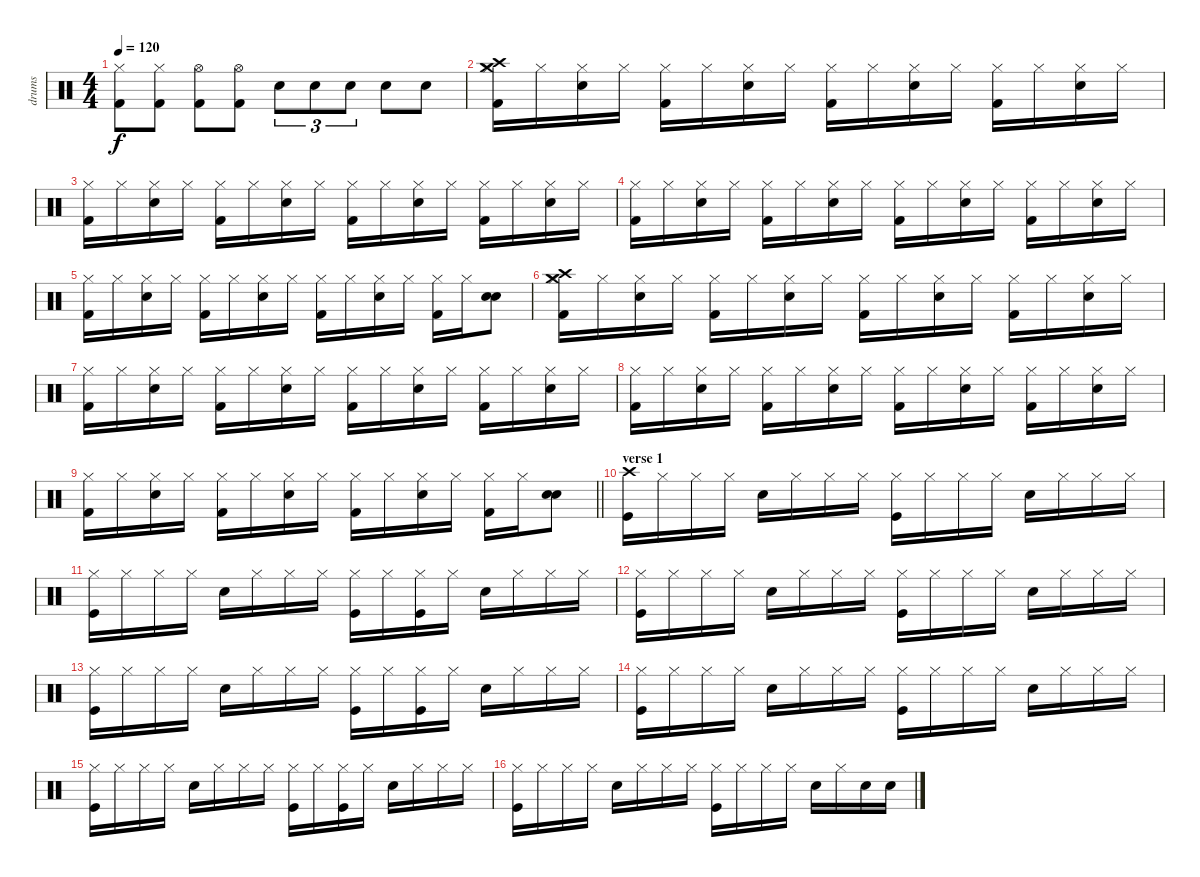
\track ("drums" "drums") {instrument percussion}
\staff {score}
\articulation defaults
\ts (4 4)
\tempo 120
\clef neutral
\ks c
("Kick (hit) 2" "Hi-Hat (closed)").8{dy f} ("Kick (hit) 2" "Hi-Hat (closed)").8 ("Kick (hit) 2" "Hi-Hat (open)").8 ("Kick (hit) 2" "Hi-Hat (open)").8 "Snare (hit) 2".8{tu (3 2)} "Snare (hit) 2".8{tu (3 2)} "Snare (hit) 2".8{tu (3 2)} "Snare (hit) 2".8 "Snare (hit) 2".8 |
("Crash medium (hit)" "Hi-Hat (closed)" "Crash high (hit)" "Kick (hit) 2").16 "Hi-Hat (closed)".16 ("Hi-Hat (closed)" "Electric Snare (hit)").16 "Hi-Hat (closed)".16 ("Hi-Hat (closed)" "Kick (hit) 2").16 "Hi-Hat (closed)".16 ("Hi-Hat (closed)" "Electric Snare (hit)").16 "Hi-Hat (closed)".16 ("Hi-Hat (closed)" "Kick (hit) 2").16 "Hi-Hat (closed)".16 ("Hi-Hat (closed)" "Electric Snare (hit)").16 "Hi-Hat (closed)".16 ("Hi-Hat (closed)" "Kick (hit) 2").16 "Hi-Hat (closed)".16 ("Hi-Hat (closed)" "Electric Snare (hit)").16 "Hi-Hat (closed)".16 |
("Hi-Hat (closed)" "Kick (hit) 2").16 "Hi-Hat (closed)".16 ("Hi-Hat (closed)" "Electric Snare (hit)").16 "Hi-Hat (closed)".16 ("Hi-Hat (closed)" "Kick (hit) 2").16 "Hi-Hat (closed)".16 ("Hi-Hat (closed)" "Electric Snare (hit)").16 "Hi-Hat (closed)".16 ("Hi-Hat (closed)" "Kick (hit) 2").16 "Hi-Hat (closed)".16 ("Hi-Hat (closed)" "Electric Snare (hit)").16 "Hi-Hat (closed)".16 ("Hi-Hat (closed)" "Kick (hit) 2").16 "Hi-Hat (closed)".16 ("Hi-Hat (closed)" "Electric Snare (hit)").16 "Hi-Hat (closed)".16 |
("Hi-Hat (closed)" "Kick (hit) 2").16 "Hi-Hat (closed)".16 ("Hi-Hat (closed)" "Electric Snare (hit)").16 "Hi-Hat (closed)".16 ("Hi-Hat (closed)" "Kick (hit) 2").16 "Hi-Hat (closed)".16 ("Hi-Hat (closed)" "Electric Snare (hit)").16 "Hi-Hat (closed)".16 ("Hi-Hat (closed)" "Kick (hit) 2").16 "Hi-Hat (closed)".16 ("Hi-Hat (closed)" "Electric Snare (hit)").16 "Hi-Hat (closed)".16 ("Hi-Hat (closed)" "Kick (hit) 2").16 "Hi-Hat (closed)".16 ("Hi-Hat (closed)" "Electric Snare (hit)").16 "Hi-Hat (closed)".16 |
("Hi-Hat (closed)" "Kick (hit) 2").16 "Hi-Hat (closed)".16 ("Hi-Hat (closed)" "Electric Snare (hit)").16 "Hi-Hat (closed)".16 ("Hi-Hat (closed)" "Kick (hit) 2").16 "Hi-Hat (closed)".16 ("Hi-Hat (closed)" "Electric Snare (hit)").16 "Hi-Hat (closed)".16 ("Hi-Hat (closed)" "Kick (hit) 2").16 "Hi-Hat (closed)".16 ("Hi-Hat (closed)" "Electric Snare (hit)").16 "Hi-Hat (closed)".16 ("Hi-Hat (closed)" "Kick (hit) 2").16 "Hi-Hat (closed)".16 ("Electric Snare (hit)" "Electric Snare (hit)").8 |
("Crash medium (hit)" "Hi-Hat (closed)" "Crash high (hit)" "Kick (hit) 2").16 "Hi-Hat (closed)".16 ("Hi-Hat (closed)" "Electric Snare (hit)").16 "Hi-Hat (closed)".16 ("Hi-Hat (closed)" "Kick (hit) 2").16 "Hi-Hat (closed)".16 ("Hi-Hat (closed)" "Electric Snare (hit)").16 "Hi-Hat (closed)".16 ("Hi-Hat (closed)" "Kick (hit) 2").16 "Hi-Hat (closed)".16 ("Hi-Hat (closed)" "Electric Snare (hit)").16 "Hi-Hat (closed)".16 ("Hi-Hat (closed)" "Kick (hit) 2").16 "Hi-Hat (closed)".16 ("Hi-Hat (closed)" "Electric Snare (hit)").16 "Hi-Hat (closed)".16 |
("Hi-Hat (closed)" "Kick (hit) 2").16 "Hi-Hat (closed)".16 ("Hi-Hat (closed)" "Electric Snare (hit)").16 "Hi-Hat (closed)".16 ("Hi-Hat (closed)" "Kick (hit) 2").16 "Hi-Hat (closed)".16 ("Hi-Hat (closed)" "Electric Snare (hit)").16 "Hi-Hat (closed)".16 ("Hi-Hat (closed)" "Kick (hit) 2").16 "Hi-Hat (closed)".16 ("Hi-Hat (closed)" "Electric Snare (hit)").16 "Hi-Hat (closed)".16 ("Hi-Hat (closed)" "Kick (hit) 2").16 "Hi-Hat (closed)".16 ("Hi-Hat (closed)" "Electric Snare (hit)").16 "Hi-Hat (closed)".16 |
("Hi-Hat (closed)" "Kick (hit) 2").16 "Hi-Hat (closed)".16 ("Hi-Hat (closed)" "Electric Snare (hit)").16 "Hi-Hat (closed)".16 ("Hi-Hat (closed)" "Kick (hit) 2").16 "Hi-Hat (closed)".16 ("Hi-Hat (closed)" "Electric Snare (hit)").16 "Hi-Hat (closed)".16 ("Hi-Hat (closed)" "Kick (hit) 2").16 "Hi-Hat (closed)".16 ("Hi-Hat (closed)" "Electric Snare (hit)").16 "Hi-Hat (closed)".16 ("Hi-Hat (closed)" "Kick (hit) 2").16 "Hi-Hat (closed)".16 ("Hi-Hat (closed)" "Electric Snare (hit)").16 "Hi-Hat (closed)".16 |
\barLineRight lightlight
("Hi-Hat (closed)" "Kick (hit) 2").16 "Hi-Hat (closed)".16 ("Hi-Hat (closed)" "Electric Snare (hit)").16 "Hi-Hat (closed)".16 ("Hi-Hat (closed)" "Kick (hit) 2").16 "Hi-Hat (closed)".16 ("Hi-Hat (closed)" "Electric Snare (hit)").16 "Hi-Hat (closed)".16 ("Hi-Hat (closed)" "Kick (hit) 2").16 "Hi-Hat (closed)".16 ("Hi-Hat (closed)" "Electric Snare (hit)").16 "Hi-Hat (closed)".16 ("Hi-Hat (closed)" "Kick (hit) 2").16 "Hi-Hat (closed)".16 ("Electric Snare (hit)" "Electric Snare (hit)").8 |
\section ("" "verse 1")
("Crash high (hit)" "Kick (hit)").16 "Hi-Hat (closed)".16 "Hi-Hat (closed)".16 "Hi-Hat (closed)".16 "Snare (hit) 2".16 "Hi-Hat (closed)".16 "Hi-Hat (closed)".16 "Hi-Hat (closed)".16 ("Hi-Hat (closed)" "Kick (hit)").16 "Hi-Hat (closed)".16 "Hi-Hat (closed)".16 "Hi-Hat (closed)".16 "Snare (hit) 2".16 "Hi-Hat (closed)".16 "Hi-Hat (closed)".16 "Hi-Hat (closed)".16 |
("Hi-Hat (closed)" "Kick (hit)").16 "Hi-Hat (closed)".16 "Hi-Hat (closed)".16 "Hi-Hat (closed)".16 "Snare (hit) 2".16 "Hi-Hat (closed)".16 "Hi-Hat (closed)".16 "Hi-Hat (closed)".16 ("Hi-Hat (closed)" "Kick (hit)").16 "Hi-Hat (closed)".16 ("Hi-Hat (closed)" "Kick (hit)").16 "Hi-Hat (closed)".16 "Snare (hit) 2".16 "Hi-Hat (closed)".16 "Hi-Hat (closed)".16 "Hi-Hat (closed)".16 |
("Hi-Hat (closed)" "Kick (hit)").16 "Hi-Hat (closed)".16 "Hi-Hat (closed)".16 "Hi-Hat (closed)".16 "Snare (hit) 2".16 "Hi-Hat (closed)".16 "Hi-Hat (closed)".16 "Hi-Hat (closed)".16 ("Hi-Hat (closed)" "Kick (hit)").16 "Hi-Hat (closed)".16 "Hi-Hat (closed)".16 "Hi-Hat (closed)".16 "Snare (hit) 2".16 "Hi-Hat (closed)".16 "Hi-Hat (closed)".16 "Hi-Hat (closed)".16 |
("Hi-Hat (closed)" "Kick (hit)").16 "Hi-Hat (closed)".16 "Hi-Hat (closed)".16 "Hi-Hat (closed)".16 "Snare (hit) 2".16 "Hi-Hat (closed)".16 "Hi-Hat (closed)".16 "Hi-Hat (closed)".16 ("Hi-Hat (closed)" "Kick (hit)").16 "Hi-Hat (closed)".16 ("Hi-Hat (closed)" "Kick (hit)").16 "Hi-Hat (closed)".16 "Snare (hit) 2".16 "Hi-Hat (closed)".16 "Hi-Hat (closed)".16 "Hi-Hat (closed)".16 |
("Hi-Hat (closed)" "Kick (hit)").16 "Hi-Hat (closed)".16 "Hi-Hat (closed)".16 "Hi-Hat (closed)".16 "Snare (hit) 2".16 "Hi-Hat (closed)".16 "Hi-Hat (closed)".16 "Hi-Hat (closed)".16 ("Hi-Hat (closed)" "Kick (hit)").16 "Hi-Hat (closed)".16 "Hi-Hat (closed)".16 "Hi-Hat (closed)".16 "Snare (hit) 2".16 "Hi-Hat (closed)".16 "Hi-Hat (closed)".16 "Hi-Hat (closed)".16 |
("Hi-Hat (closed)" "Kick (hit)").16 "Hi-Hat (closed)".16 "Hi-Hat (closed)".16 "Hi-Hat (closed)".16 "Snare (hit) 2".16 "Hi-Hat (closed)".16 "Hi-Hat (closed)".16 "Hi-Hat (closed)".16 ("Hi-Hat (closed)" "Kick (hit)").16 "Hi-Hat (closed)".16 ("Hi-Hat (closed)" "Kick (hit)").16 "Hi-Hat (closed)".16 "Snare (hit) 2".16 "Hi-Hat (closed)".16 "Hi-Hat (closed)".16 "Hi-Hat (closed)".16 |
("Hi-Hat (closed)" "Kick (hit)").16 "Hi-Hat (closed)".16 "Hi-Hat (closed)".16 "Hi-Hat (closed)".16 "Snare (hit) 2".16 "Hi-Hat (closed)".16 "Hi-Hat (closed)".16 "Hi-Hat (closed)".16 ("Hi-Hat (closed)" "Kick (hit)").16 "Hi-Hat (closed)".16 "Hi-Hat (closed)".16 "Hi-Hat (closed)".16 "Snare (hit) 2".16 "Hi-Hat (closed)".16 "Snare (hit) 2".16 "Snare (hit) 2".16
